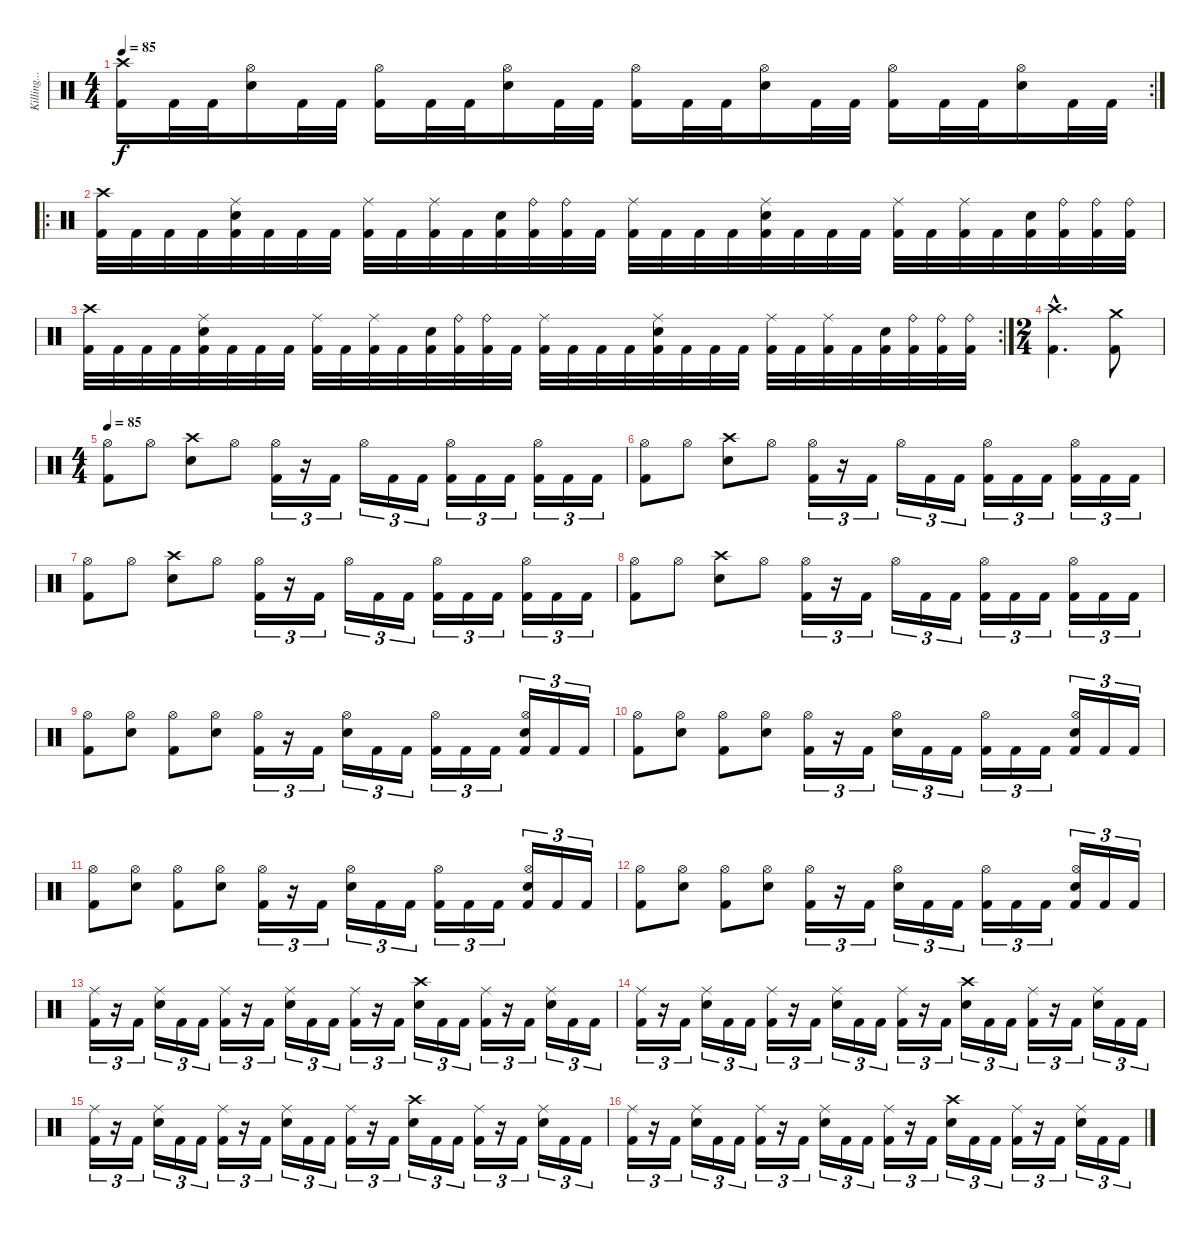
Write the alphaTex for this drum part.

\track ("Killing.....Is His Business" "Killing...") {instrument percussion}
\staff {score}
\articulation defaults
\rc 2
\ts (4 4)
\tempo 85
\clef neutral
\ks c
("Crash high (hit)" "Kick (hit) 2").16{dy f} "Kick (hit) 2".32 "Kick (hit) 2".32 ("Hi-Hat (open)" "Snare (hit) 2").16 "Kick (hit) 2".32 "Kick (hit) 2".32 ("Hi-Hat (open)" "Kick (hit) 2").16 "Kick (hit) 2".32 "Kick (hit) 2".32 ("Hi-Hat (open)" "Snare (hit) 2").16 "Kick (hit) 2".32 "Kick (hit) 2".32 ("Hi-Hat (open)" "Kick (hit) 2").16 "Kick (hit) 2".32 "Kick (hit) 2".32 ("Hi-Hat (open)" "Snare (hit) 2").16 "Kick (hit) 2".32 "Kick (hit) 2".32 ("Hi-Hat (open)" "Kick (hit) 2").16 "Kick (hit) 2".32 "Kick (hit) 2".32 ("Hi-Hat (open)" "Snare (hit) 2").16 "Kick (hit) 2".32 "Kick (hit) 2".32 |
\ro
("Crash high (hit)" "Kick (hit) 2").32 "Kick (hit) 2".32 "Kick (hit) 2".32 "Kick (hit) 2".32 ("Ride (middle)" "Snare (hit) 2" "Kick (hit) 2").32 "Kick (hit) 2".32 "Kick (hit) 2".32 "Kick (hit) 2".32 ("Ride (middle)" "Kick (hit) 2").32 "Kick (hit) 2".32 ("Ride (middle)" "Kick (hit) 2").32 "Kick (hit) 2".32 ("Snare (hit) 2" "Kick (hit) 2").32 ("Ride (bell)" "Kick (hit) 2").32 ("Ride (bell)" "Kick (hit) 2").32 "Kick (hit) 2".32 ("Ride (middle)" "Kick (hit) 2").32 "Kick (hit) 2".32 "Kick (hit) 2".32 "Kick (hit) 2".32 ("Ride (middle)" "Snare (hit) 2" "Kick (hit) 2").32 "Kick (hit) 2".32 "Kick (hit) 2".32 "Kick (hit) 2".32 ("Ride (middle)" "Kick (hit) 2").32 "Kick (hit) 2".32 ("Ride (middle)" "Kick (hit) 2").32 "Kick (hit) 2".32 ("Snare (hit) 2" "Kick (hit) 2").32 ("Ride (bell)" "Kick (hit) 2").32 ("Ride (bell)" "Kick (hit) 2").32 ("Ride (bell)" "Kick (hit) 2").32 |
\rc 2
("Crash high (hit)" "Kick (hit) 2").32 "Kick (hit) 2".32 "Kick (hit) 2".32 "Kick (hit) 2".32 ("Ride (middle)" "Snare (hit) 2" "Kick (hit) 2").32 "Kick (hit) 2".32 "Kick (hit) 2".32 "Kick (hit) 2".32 ("Ride (middle)" "Kick (hit) 2").32 "Kick (hit) 2".32 ("Ride (middle)" "Kick (hit) 2").32 "Kick (hit) 2".32 ("Snare (hit) 2" "Kick (hit) 2").32 ("Ride (bell)" "Kick (hit) 2").32 ("Ride (bell)" "Kick (hit) 2").32 "Kick (hit) 2".32 ("Ride (middle)" "Kick (hit) 2").32 "Kick (hit) 2".32 "Kick (hit) 2".32 "Kick (hit) 2".32 ("Ride (middle)" "Snare (hit) 2" "Kick (hit) 2").32 "Kick (hit) 2".32 "Kick (hit) 2".32 "Kick (hit) 2".32 ("Ride (middle)" "Kick (hit) 2").32 "Kick (hit) 2".32 ("Ride (middle)" "Kick (hit) 2").32 "Kick (hit) 2".32 ("Snare (hit) 2" "Kick (hit) 2").32 ("Ride (bell)" "Kick (hit) 2").32 ("Ride (bell)" "Kick (hit) 2").32 ("Ride (bell)" "Kick (hit) 2").32 |
\ts (2 4)
("Crash high (hit)"{hac} "Kick (hit) 2"{hac}).4{d} ("Crash medium (hit)" "Kick (hit) 2").8 |
\ts (4 4)
\tempo 85
("Hi-Hat (open)" "Kick (hit) 2").8 "Hi-Hat (open)".8 ("Crash high (hit)" "Snare (hit) 2").8 "Hi-Hat (open)".8 ("Hi-Hat (open)" "Kick (hit) 2").16{tu (3 2)} r.16{tu (3 2)} "Kick (hit) 2".16{tu (3 2)} "Hi-Hat (open)".16{tu (3 2)} "Kick (hit) 2".16{tu (3 2)} "Kick (hit) 2".16{tu (3 2)} ("Hi-Hat (open)" "Kick (hit) 2").16{tu (3 2)} "Kick (hit) 2".16{tu (3 2)} "Kick (hit) 2".16{tu (3 2)} ("Hi-Hat (open)" "Kick (hit) 2").16{tu (3 2)} "Kick (hit) 2".16{tu (3 2)} "Kick (hit) 2".16{tu (3 2)} |
("Hi-Hat (open)" "Kick (hit) 2").8 "Hi-Hat (open)".8 ("Crash high (hit)" "Snare (hit) 2").8 "Hi-Hat (open)".8 ("Hi-Hat (open)" "Kick (hit) 2").16{tu (3 2)} r.16{tu (3 2)} "Kick (hit) 2".16{tu (3 2)} "Hi-Hat (open)".16{tu (3 2)} "Kick (hit) 2".16{tu (3 2)} "Kick (hit) 2".16{tu (3 2)} ("Hi-Hat (open)" "Kick (hit) 2").16{tu (3 2)} "Kick (hit) 2".16{tu (3 2)} "Kick (hit) 2".16{tu (3 2)} ("Hi-Hat (open)" "Kick (hit) 2").16{tu (3 2)} "Kick (hit) 2".16{tu (3 2)} "Kick (hit) 2".16{tu (3 2)} |
("Hi-Hat (open)" "Kick (hit) 2").8 "Hi-Hat (open)".8 ("Crash high (hit)" "Snare (hit) 2").8 "Hi-Hat (open)".8 ("Hi-Hat (open)" "Kick (hit) 2").16{tu (3 2)} r.16{tu (3 2)} "Kick (hit) 2".16{tu (3 2)} "Hi-Hat (open)".16{tu (3 2)} "Kick (hit) 2".16{tu (3 2)} "Kick (hit) 2".16{tu (3 2)} ("Hi-Hat (open)" "Kick (hit) 2").16{tu (3 2)} "Kick (hit) 2".16{tu (3 2)} "Kick (hit) 2".16{tu (3 2)} ("Hi-Hat (open)" "Kick (hit) 2").16{tu (3 2)} "Kick (hit) 2".16{tu (3 2)} "Kick (hit) 2".16{tu (3 2)} |
("Hi-Hat (open)" "Kick (hit) 2").8 "Hi-Hat (open)".8 ("Crash high (hit)" "Snare (hit) 2").8 "Hi-Hat (open)".8 ("Hi-Hat (open)" "Kick (hit) 2").16{tu (3 2)} r.16{tu (3 2)} "Kick (hit) 2".16{tu (3 2)} "Hi-Hat (open)".16{tu (3 2)} "Kick (hit) 2".16{tu (3 2)} "Kick (hit) 2".16{tu (3 2)} ("Hi-Hat (open)" "Kick (hit) 2").16{tu (3 2)} "Kick (hit) 2".16{tu (3 2)} "Kick (hit) 2".16{tu (3 2)} ("Hi-Hat (open)" "Kick (hit) 2").16{tu (3 2)} "Kick (hit) 2".16{tu (3 2)} "Kick (hit) 2".16{tu (3 2)} |
("Hi-Hat (open)" "Kick (hit) 2").8 ("Hi-Hat (open)" "Snare (hit) 2").8 ("Hi-Hat (open)" "Kick (hit) 2").8 ("Hi-Hat (open)" "Snare (hit) 2").8 ("Hi-Hat (open)" "Kick (hit) 2").16{tu (3 2)} r.16{tu (3 2)} "Kick (hit) 2".16{tu (3 2)} ("Hi-Hat (open)" "Snare (hit) 2").16{tu (3 2)} "Kick (hit) 2".16{tu (3 2)} "Kick (hit) 2".16{tu (3 2)} ("Hi-Hat (open)" "Kick (hit) 2").16{tu (3 2)} "Kick (hit) 2".16{tu (3 2)} "Kick (hit) 2".16{tu (3 2)} ("Hi-Hat (open)" "Snare (hit) 2" "Kick (hit) 2").16{tu (3 2)} "Kick (hit) 2".16{tu (3 2)} "Kick (hit) 2".16{tu (3 2)} |
("Hi-Hat (open)" "Kick (hit) 2").8 ("Hi-Hat (open)" "Snare (hit) 2").8 ("Hi-Hat (open)" "Kick (hit) 2").8 ("Hi-Hat (open)" "Snare (hit) 2").8 ("Hi-Hat (open)" "Kick (hit) 2").16{tu (3 2)} r.16{tu (3 2)} "Kick (hit) 2".16{tu (3 2)} ("Hi-Hat (open)" "Snare (hit) 2").16{tu (3 2)} "Kick (hit) 2".16{tu (3 2)} "Kick (hit) 2".16{tu (3 2)} ("Hi-Hat (open)" "Kick (hit) 2").16{tu (3 2)} "Kick (hit) 2".16{tu (3 2)} "Kick (hit) 2".16{tu (3 2)} ("Hi-Hat (open)" "Snare (hit) 2" "Kick (hit) 2").16{tu (3 2)} "Kick (hit) 2".16{tu (3 2)} "Kick (hit) 2".16{tu (3 2)} |
("Hi-Hat (open)" "Kick (hit) 2").8 ("Hi-Hat (open)" "Snare (hit) 2").8 ("Hi-Hat (open)" "Kick (hit) 2").8 ("Hi-Hat (open)" "Snare (hit) 2").8 ("Hi-Hat (open)" "Kick (hit) 2").16{tu (3 2)} r.16{tu (3 2)} "Kick (hit) 2".16{tu (3 2)} ("Hi-Hat (open)" "Snare (hit) 2").16{tu (3 2)} "Kick (hit) 2".16{tu (3 2)} "Kick (hit) 2".16{tu (3 2)} ("Hi-Hat (open)" "Kick (hit) 2").16{tu (3 2)} "Kick (hit) 2".16{tu (3 2)} "Kick (hit) 2".16{tu (3 2)} ("Hi-Hat (open)" "Snare (hit) 2" "Kick (hit) 2").16{tu (3 2)} "Kick (hit) 2".16{tu (3 2)} "Kick (hit) 2".16{tu (3 2)} |
("Hi-Hat (open)" "Kick (hit) 2").8 ("Hi-Hat (open)" "Snare (hit) 2").8 ("Hi-Hat (open)" "Kick (hit) 2").8 ("Hi-Hat (open)" "Snare (hit) 2").8 ("Hi-Hat (open)" "Kick (hit) 2").16{tu (3 2)} r.16{tu (3 2)} "Kick (hit) 2".16{tu (3 2)} ("Hi-Hat (open)" "Snare (hit) 2").16{tu (3 2)} "Kick (hit) 2".16{tu (3 2)} "Kick (hit) 2".16{tu (3 2)} ("Hi-Hat (open)" "Kick (hit) 2").16{tu (3 2)} "Kick (hit) 2".16{tu (3 2)} "Kick (hit) 2".16{tu (3 2)} ("Hi-Hat (open)" "Snare (hit) 2" "Kick (hit) 2").16{tu (3 2)} "Kick (hit) 2".16{tu (3 2)} "Kick (hit) 2".16{tu (3 2)} |
("Ride (middle)" "Kick (hit) 2").16{tu (3 2)} r.16{tu (3 2)} "Kick (hit) 2".16{tu (3 2)} ("Ride (middle)" "Snare (hit) 2").16{tu (3 2)} "Kick (hit) 2".16{tu (3 2)} "Kick (hit) 2".16{tu (3 2)} ("Ride (middle)" "Kick (hit) 2").16{tu (3 2)} r.16{tu (3 2)} "Kick (hit) 2".16{tu (3 2)} ("Ride (middle)" "Snare (hit) 2").16{tu (3 2)} "Kick (hit) 2".16{tu (3 2)} "Kick (hit) 2".16{tu (3 2)} ("Ride (middle)" "Kick (hit) 2").16{tu (3 2)} r.16{tu (3 2)} "Kick (hit) 2".16{tu (3 2)} ("Crash high (hit)" "Snare (hit) 2").16{tu (3 2)} "Kick (hit) 2".16{tu (3 2)} "Kick (hit) 2".16{tu (3 2)} ("Ride (middle)" "Kick (hit) 2").16{tu (3 2)} r.16{tu (3 2)} "Kick (hit) 2".16{tu (3 2)} ("Ride (middle)" "Snare (hit) 2").16{tu (3 2)} "Kick (hit) 2".16{tu (3 2)} "Kick (hit) 2".16{tu (3 2)} |
("Ride (middle)" "Kick (hit) 2").16{tu (3 2)} r.16{tu (3 2)} "Kick (hit) 2".16{tu (3 2)} ("Ride (middle)" "Snare (hit) 2").16{tu (3 2)} "Kick (hit) 2".16{tu (3 2)} "Kick (hit) 2".16{tu (3 2)} ("Ride (middle)" "Kick (hit) 2").16{tu (3 2)} r.16{tu (3 2)} "Kick (hit) 2".16{tu (3 2)} ("Ride (middle)" "Snare (hit) 2").16{tu (3 2)} "Kick (hit) 2".16{tu (3 2)} "Kick (hit) 2".16{tu (3 2)} ("Ride (middle)" "Kick (hit) 2").16{tu (3 2)} r.16{tu (3 2)} "Kick (hit) 2".16{tu (3 2)} ("Crash high (hit)" "Snare (hit) 2").16{tu (3 2)} "Kick (hit) 2".16{tu (3 2)} "Kick (hit) 2".16{tu (3 2)} ("Ride (middle)" "Kick (hit) 2").16{tu (3 2)} r.16{tu (3 2)} "Kick (hit) 2".16{tu (3 2)} ("Ride (middle)" "Snare (hit) 2").16{tu (3 2)} "Kick (hit) 2".16{tu (3 2)} "Kick (hit) 2".16{tu (3 2)} |
("Ride (middle)" "Kick (hit) 2").16{tu (3 2)} r.16{tu (3 2)} "Kick (hit) 2".16{tu (3 2)} ("Ride (middle)" "Snare (hit) 2").16{tu (3 2)} "Kick (hit) 2".16{tu (3 2)} "Kick (hit) 2".16{tu (3 2)} ("Ride (middle)" "Kick (hit) 2").16{tu (3 2)} r.16{tu (3 2)} "Kick (hit) 2".16{tu (3 2)} ("Ride (middle)" "Snare (hit) 2").16{tu (3 2)} "Kick (hit) 2".16{tu (3 2)} "Kick (hit) 2".16{tu (3 2)} ("Ride (middle)" "Kick (hit) 2").16{tu (3 2)} r.16{tu (3 2)} "Kick (hit) 2".16{tu (3 2)} ("Crash high (hit)" "Snare (hit) 2").16{tu (3 2)} "Kick (hit) 2".16{tu (3 2)} "Kick (hit) 2".16{tu (3 2)} ("Ride (middle)" "Kick (hit) 2").16{tu (3 2)} r.16{tu (3 2)} "Kick (hit) 2".16{tu (3 2)} ("Ride (middle)" "Snare (hit) 2").16{tu (3 2)} "Kick (hit) 2".16{tu (3 2)} "Kick (hit) 2".16{tu (3 2)} |
("Ride (middle)" "Kick (hit) 2").16{tu (3 2)} r.16{tu (3 2)} "Kick (hit) 2".16{tu (3 2)} ("Ride (middle)" "Snare (hit) 2").16{tu (3 2)} "Kick (hit) 2".16{tu (3 2)} "Kick (hit) 2".16{tu (3 2)} ("Ride (middle)" "Kick (hit) 2").16{tu (3 2)} r.16{tu (3 2)} "Kick (hit) 2".16{tu (3 2)} ("Ride (middle)" "Snare (hit) 2").16{tu (3 2)} "Kick (hit) 2".16{tu (3 2)} "Kick (hit) 2".16{tu (3 2)} ("Ride (middle)" "Kick (hit) 2").16{tu (3 2)} r.16{tu (3 2)} "Kick (hit) 2".16{tu (3 2)} ("Crash high (hit)" "Snare (hit) 2").16{tu (3 2)} "Kick (hit) 2".16{tu (3 2)} "Kick (hit) 2".16{tu (3 2)} ("Ride (middle)" "Kick (hit) 2").16{tu (3 2)} r.16{tu (3 2)} "Kick (hit) 2".16{tu (3 2)} ("Ride (middle)" "Snare (hit) 2").16{tu (3 2)} "Kick (hit) 2".16{tu (3 2)} "Kick (hit) 2".16{tu (3 2)}
